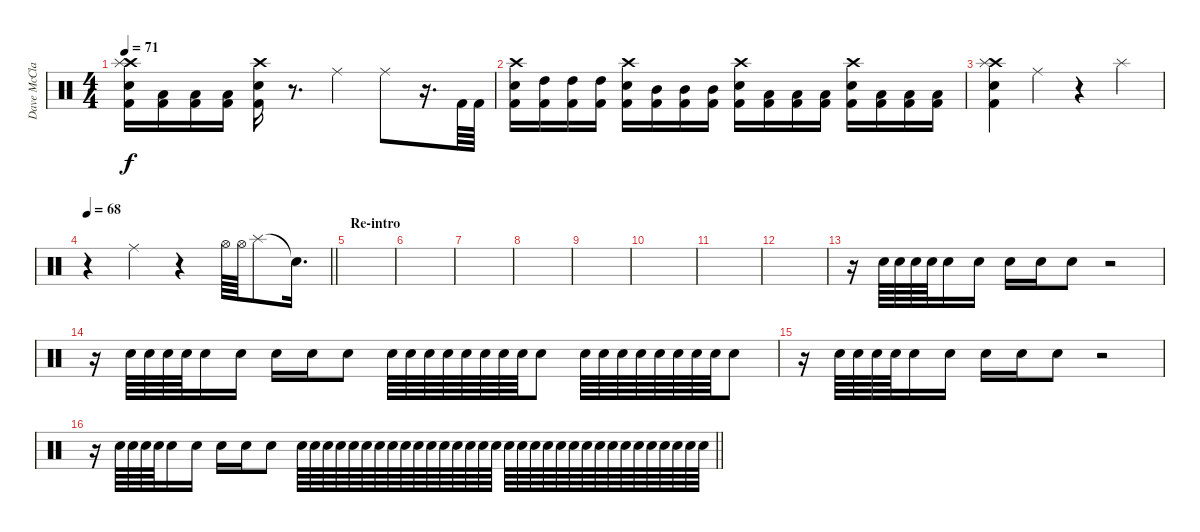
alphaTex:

\track ("Dave McClain - Drums" "Dave McCla") {instrument percussion}
\staff {score}
\articulation defaults
\ts (4 4)
\tempo 71
\clef neutral
\ks c
("Crash high (hit)" "Splash (hit)" "Electric Snare (hit)" "Kick (hit) 2").16{dy f} ("Low Tom (hit)" "Kick (hit) 2").16 ("Low Tom (hit)" "Kick (hit) 2").16 ("Low Tom (hit)" "Kick (hit) 2").16 ("Crash high (hit)" "Electric Snare (hit)" "Kick (hit) 2").16 r.8{d} "Ride (middle)".4 "Ride (middle)".8 r.16{d} "Kick (hit) 2".64 "Kick (hit) 2".64 |
("Crash high (hit)" "Electric Snare (hit)" "Kick (hit) 2").16 ("High Tom (hit)" "Kick (hit) 2").16 ("High Tom (hit)" "Kick (hit) 2").16 ("High Tom (hit)" "Kick (hit) 2").16 ("Crash high (hit)" "Electric Snare (hit)" "Kick (hit) 2").16 ("Mid Tom (hit)" "Kick (hit) 2").16 ("Mid Tom (hit)" "Kick (hit) 2").16 ("Mid Tom (hit)" "Kick (hit) 2").16 ("Crash high (hit)" "Electric Snare (hit)" "Kick (hit) 2").16 ("Low Tom (hit)" "Kick (hit) 2").16 ("Low Tom (hit)" "Kick (hit) 2").16 ("Low Tom (hit)" "Kick (hit) 2").16 ("Crash high (hit)" "Electric Snare (hit)" "Kick (hit) 2").16 ("Low Floor Tom (hit)" "Kick (hit) 2").16 ("Low Floor Tom (hit)" "Kick (hit) 2").16 ("Low Floor Tom (hit)" "Kick (hit) 2").16 |
("Crash high (hit)" "Splash (hit)" "Electric Snare (hit)" "Kick (hit) 2").4 "Ride (middle)".4 r.4 "Splash (hit)".4 |
\tempo 68
\barLineRight lightlight
r.4 "Ride (middle)".4 r.4 "Hi-Hat (open)".64 "Hi-Hat (open)".64 "Splash (hit)".8 "Snare (hit)"{t}.16{d} |
\section ("" "Re-intro")
|
|
|
|
|
|
|
|
r.16{volume 6} "Electric Snare (hit)".64 "Electric Snare (hit)".64 "Electric Snare (hit)".64 "Electric Snare (hit)".64 "Electric Snare (hit)".16 "Electric Snare (hit)".16 "Electric Snare (hit)".16 "Electric Snare (hit)".16 "Electric Snare (hit)".8 r.2 |
r.16 "Electric Snare (hit)".64 "Electric Snare (hit)".64 "Electric Snare (hit)".64 "Electric Snare (hit)".64 "Electric Snare (hit)".16 "Electric Snare (hit)".16 "Electric Snare (hit)".16 "Electric Snare (hit)".16 "Electric Snare (hit)".8 "Electric Snare (hit)".64 "Electric Snare (hit)".64 "Electric Snare (hit)".64 "Electric Snare (hit)".64 "Electric Snare (hit)".64 "Electric Snare (hit)".64 "Electric Snare (hit)".64 "Electric Snare (hit)".64 "Electric Snare (hit)".8 "Electric Snare (hit)".64 "Electric Snare (hit)".64 "Electric Snare (hit)".64 "Electric Snare (hit)".64 "Electric Snare (hit)".64 "Electric Snare (hit)".64 "Electric Snare (hit)".64 "Electric Snare (hit)".64 "Electric Snare (hit)".8 |
r.16 "Electric Snare (hit)".64 "Electric Snare (hit)".64 "Electric Snare (hit)".64 "Electric Snare (hit)".64 "Electric Snare (hit)".16 "Electric Snare (hit)".16 "Electric Snare (hit)".16 "Electric Snare (hit)".16 "Electric Snare (hit)".8 r.2 |
\barLineRight lightlight
r.16 "Electric Snare (hit)".64 "Electric Snare (hit)".64 "Electric Snare (hit)".64 "Electric Snare (hit)".64 "Electric Snare (hit)".16 "Electric Snare (hit)".16 "Electric Snare (hit)".16 "Electric Snare (hit)".16 "Electric Snare (hit)".8 "Electric Snare (hit)".64 "Electric Snare (hit)".64 "Electric Snare (hit)".64 "Electric Snare (hit)".64 "Electric Snare (hit)".64 "Electric Snare (hit)".64 "Electric Snare (hit)".64 "Electric Snare (hit)".64 "Electric Snare (hit)".64 "Electric Snare (hit)".64 "Electric Snare (hit)".64 "Electric Snare (hit)".64 "Electric Snare (hit)".64 "Electric Snare (hit)".64 "Electric Snare (hit)".64 "Electric Snare (hit)".64 "Electric Snare (hit)".64 "Electric Snare (hit)".64 "Electric Snare (hit)".64 "Electric Snare (hit)".64 "Electric Snare (hit)".64 "Electric Snare (hit)".64 "Electric Snare (hit)".64 "Electric Snare (hit)".64 "Electric Snare (hit)".64 "Electric Snare (hit)".64 "Electric Snare (hit)".64 "Electric Snare (hit)".64 "Electric Snare (hit)".64 "Electric Snare (hit)".64 "Electric Snare (hit)".64 "Electric Snare (hit)".64
